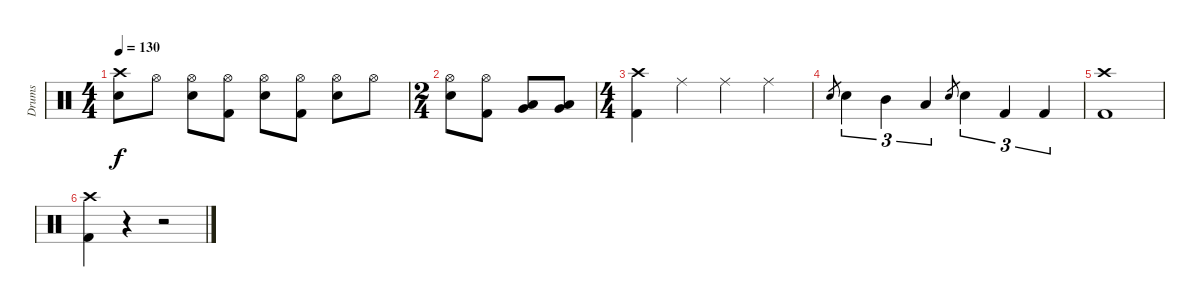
\track ("Drums" "Drums") {instrument percussion}
\staff {score}
\articulation defaults
\ts (4 4)
\tempo 130
\clef neutral
\ks c
("Crash high (hit)" "Electric Snare (hit)").8{dy f} "Hi-Hat (open)".8 ("Hi-Hat (open)" "Electric Snare (hit)").8 ("Hi-Hat (open)" "Kick (hit) 2").8 ("Hi-Hat (open)" "Electric Snare (hit)").8 ("Hi-Hat (open)" "Kick (hit) 2").8 ("Hi-Hat (open)" "Electric Snare (hit)").8 "Hi-Hat (open)".8 |
\ts (2 4)
("Hi-Hat (open)" "Electric Snare (hit)").8 ("Hi-Hat (open)" "Kick (hit) 2").8 ("Low Tom (hit)" "Very Low Tom (hit)").8 ("Low Tom (hit)" "Very Low Tom (hit)").8 |
\ts (4 4)
("Crash high (hit)" "Kick (hit) 2").4 "Ride (middle)".4 "Ride (middle)".4 "Ride (middle)".4 |
"Electric Snare (hit)".8{gr} "Electric Snare (hit)".4{tu (3 2)} "Mid Tom (hit)".4{tu (3 2)} "Low Tom (hit)".4{tu (3 2)} "Electric Snare (hit)".8{gr} "Electric Snare (hit)".4{tu (3 2)} "Kick (hit) 2".4{tu (3 2)} "Kick (hit) 2".4{tu (3 2)} |
("Crash high (hit)" "Kick (hit) 2").1 |
("Crash high (hit)" "Kick (hit) 2").4 r.4 r.2
